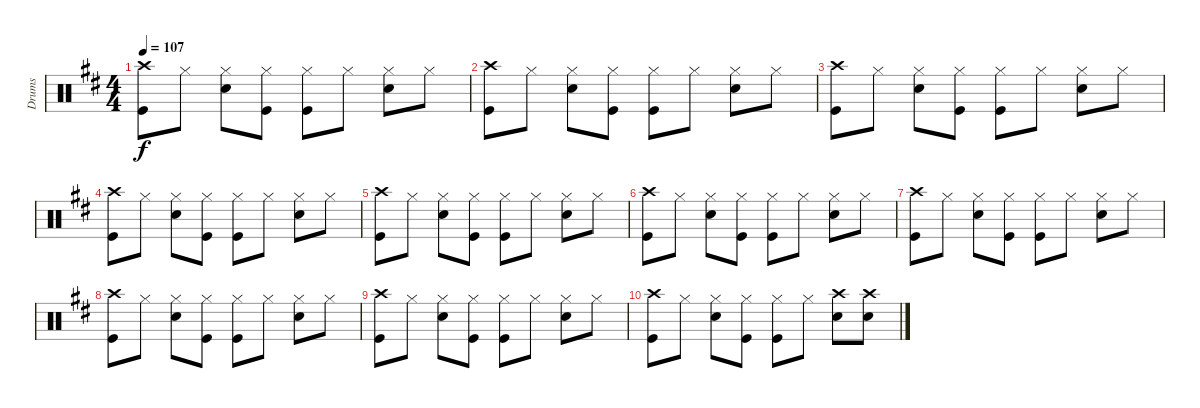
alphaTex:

\track ("Drums" "Drums") {instrument percussion}
\staff {score}
\articulation defaults
\ts (4 4)
\tempo 107
\clef neutral
\ks d
("Crash high (hit)" "Kick (hit)").8{dy f} "Hi-Hat (closed)".8 ("Hi-Hat (closed)" "Snare (hit) 2").8 ("Hi-Hat (closed)" "Kick (hit)").8 ("Hi-Hat (closed)" "Kick (hit)").8 "Hi-Hat (closed)".8 ("Hi-Hat (closed)" "Snare (hit) 2").8 "Hi-Hat (closed)".8 |
("Crash high (hit)" "Kick (hit)").8 "Hi-Hat (closed)".8 ("Hi-Hat (closed)" "Snare (hit) 2").8 ("Hi-Hat (closed)" "Kick (hit)").8 ("Hi-Hat (closed)" "Kick (hit)").8 "Hi-Hat (closed)".8 ("Hi-Hat (closed)" "Snare (hit) 2").8 "Hi-Hat (closed)".8 |
("Crash high (hit)" "Kick (hit)").8 "Hi-Hat (closed)".8 ("Hi-Hat (closed)" "Snare (hit) 2").8 ("Hi-Hat (closed)" "Kick (hit)").8 ("Hi-Hat (closed)" "Kick (hit)").8 "Hi-Hat (closed)".8 ("Hi-Hat (closed)" "Snare (hit) 2").8 "Hi-Hat (closed)".8 |
("Crash high (hit)" "Kick (hit)").8 "Hi-Hat (closed)".8 ("Hi-Hat (closed)" "Snare (hit) 2").8 ("Hi-Hat (closed)" "Kick (hit)").8 ("Hi-Hat (closed)" "Kick (hit)").8 "Hi-Hat (closed)".8 ("Hi-Hat (closed)" "Snare (hit) 2").8 "Hi-Hat (closed)".8 |
("Crash high (hit)" "Kick (hit)").8 "Hi-Hat (closed)".8 ("Hi-Hat (closed)" "Snare (hit) 2").8 ("Hi-Hat (closed)" "Kick (hit)").8 ("Hi-Hat (closed)" "Kick (hit)").8 "Hi-Hat (closed)".8 ("Hi-Hat (closed)" "Snare (hit) 2").8 "Hi-Hat (closed)".8 |
("Crash high (hit)" "Kick (hit)").8 "Hi-Hat (closed)".8 ("Hi-Hat (closed)" "Snare (hit) 2").8 ("Hi-Hat (closed)" "Kick (hit)").8 ("Hi-Hat (closed)" "Kick (hit)").8 "Hi-Hat (closed)".8 ("Hi-Hat (closed)" "Snare (hit) 2").8 "Hi-Hat (closed)".8 |
("Crash high (hit)" "Kick (hit)").8 "Hi-Hat (closed)".8 ("Hi-Hat (closed)" "Snare (hit) 2").8 ("Hi-Hat (closed)" "Kick (hit)").8 ("Hi-Hat (closed)" "Kick (hit)").8 "Hi-Hat (closed)".8 ("Hi-Hat (closed)" "Snare (hit) 2").8 "Hi-Hat (closed)".8 |
("Crash high (hit)" "Kick (hit)").8 "Hi-Hat (closed)".8 ("Hi-Hat (closed)" "Snare (hit) 2").8 ("Hi-Hat (closed)" "Kick (hit)").8 ("Hi-Hat (closed)" "Kick (hit)").8 "Hi-Hat (closed)".8 ("Hi-Hat (closed)" "Snare (hit) 2").8 "Hi-Hat (closed)".8 |
("Crash high (hit)" "Kick (hit)").8 "Hi-Hat (closed)".8 ("Hi-Hat (closed)" "Snare (hit) 2").8 ("Hi-Hat (closed)" "Kick (hit)").8 ("Hi-Hat (closed)" "Kick (hit)").8 "Hi-Hat (closed)".8 ("Hi-Hat (closed)" "Snare (hit) 2").8 "Hi-Hat (closed)".8 |
("Crash high (hit)" "Kick (hit)").8 "Hi-Hat (closed)".8 ("Hi-Hat (closed)" "Snare (hit) 2").8 ("Hi-Hat (closed)" "Kick (hit)").8 ("Hi-Hat (closed)" "Kick (hit)").8 "Hi-Hat (closed)".8 ("Crash high (hit)" "Snare (hit) 2").8 ("Crash high (hit)" "Snare (hit) 2").8
